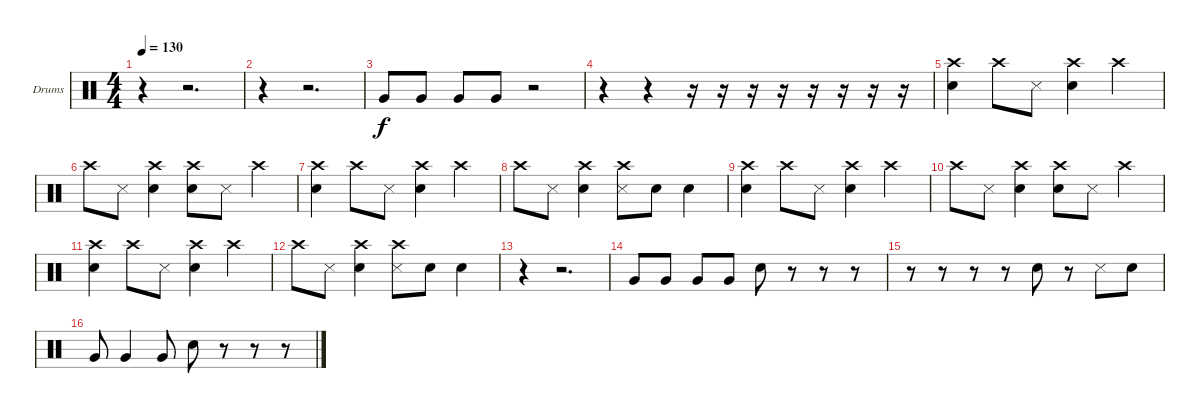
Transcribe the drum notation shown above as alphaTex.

\defaultSystemsLayout 4
\bracketExtendMode groupsimilarinstruments
\firstSystemTrackNameOrientation horizontal
\otherSystemsTrackNameOrientation horizontal
\track ("Drumkit" "Drums") {instrument percussion}
\staff {score}
\articulation defaults
\ts (4 4)
\tempo 130
\clef neutral
\ks c
r.4{dy f} r.2{d} |
r.4 r.2{d} |
"Very Low Tom (hit)".8 "Very Low Tom (hit)".8 "Very Low Tom (hit)".8 "Very Low Tom (hit)".8 r.2 |
r.4 r.4 r.16 r.16 r.16 r.16 r.16 r.16 r.16 r.16 |
("Snare (hit) 2" "Crash high (hit)").4 "Crash high (hit)".8 "Snare (side stick) 3".8 ("Snare (hit) 2" "Crash high (hit)").4 "Crash high (hit)".4 |
"Crash high (hit)".8 "Snare (side stick) 3".8 ("Snare (hit) 2" "Crash high (hit)").4 ("Snare (hit) 2" "Crash high (hit)").8 "Snare (side stick) 3".8 "Crash high (hit)".4 |
("Snare (hit) 2" "Crash high (hit)").4 "Crash high (hit)".8 "Snare (side stick) 3".8 ("Snare (hit) 2" "Crash high (hit)").4 "Crash high (hit)".4 |
"Crash high (hit)".8 "Snare (side stick) 3".8 ("Snare (hit) 2" "Crash high (hit)").4 ("Snare (side stick) 3" "Crash high (hit)").8 "Snare (hit) 2".8 "Snare (hit) 2".4 |
("Snare (hit) 2" "Crash high (hit)").4 "Crash high (hit)".8 "Snare (side stick) 3".8 ("Snare (hit) 2" "Crash high (hit)").4 "Crash high (hit)".4 |
"Crash high (hit)".8 "Snare (side stick) 3".8 ("Snare (hit) 2" "Crash high (hit)").4 ("Snare (hit) 2" "Crash high (hit)").8 "Snare (side stick) 3".8 "Crash high (hit)".4 |
("Snare (hit) 2" "Crash high (hit)").4 "Crash high (hit)".8 "Snare (side stick) 3".8 ("Snare (hit) 2" "Crash high (hit)").4 "Crash high (hit)".4 |
"Crash high (hit)".8 "Snare (side stick) 3".8 ("Snare (hit) 2" "Crash high (hit)").4 ("Snare (side stick) 3" "Crash high (hit)").8 "Snare (hit) 2".8 "Snare (hit) 2".4 |
r.4 r.2{d} |
"Very Low Tom (hit)".8 "Very Low Tom (hit)".8 "Very Low Tom (hit)".8 "Very Low Tom (hit)".8 "Snare (hit) 2".8 r.8 r.8 r.8 |
r.8 r.8 r.8 r.8 "Snare (hit) 2".8 r.8 "Snare (side stick) 3".8 "Snare (hit) 2".8 |
"Very Low Tom (hit)".8 "Very Low Tom (hit)".4 "Very Low Tom (hit)".8 "Snare (hit) 2".8 r.8 r.8 r.8
